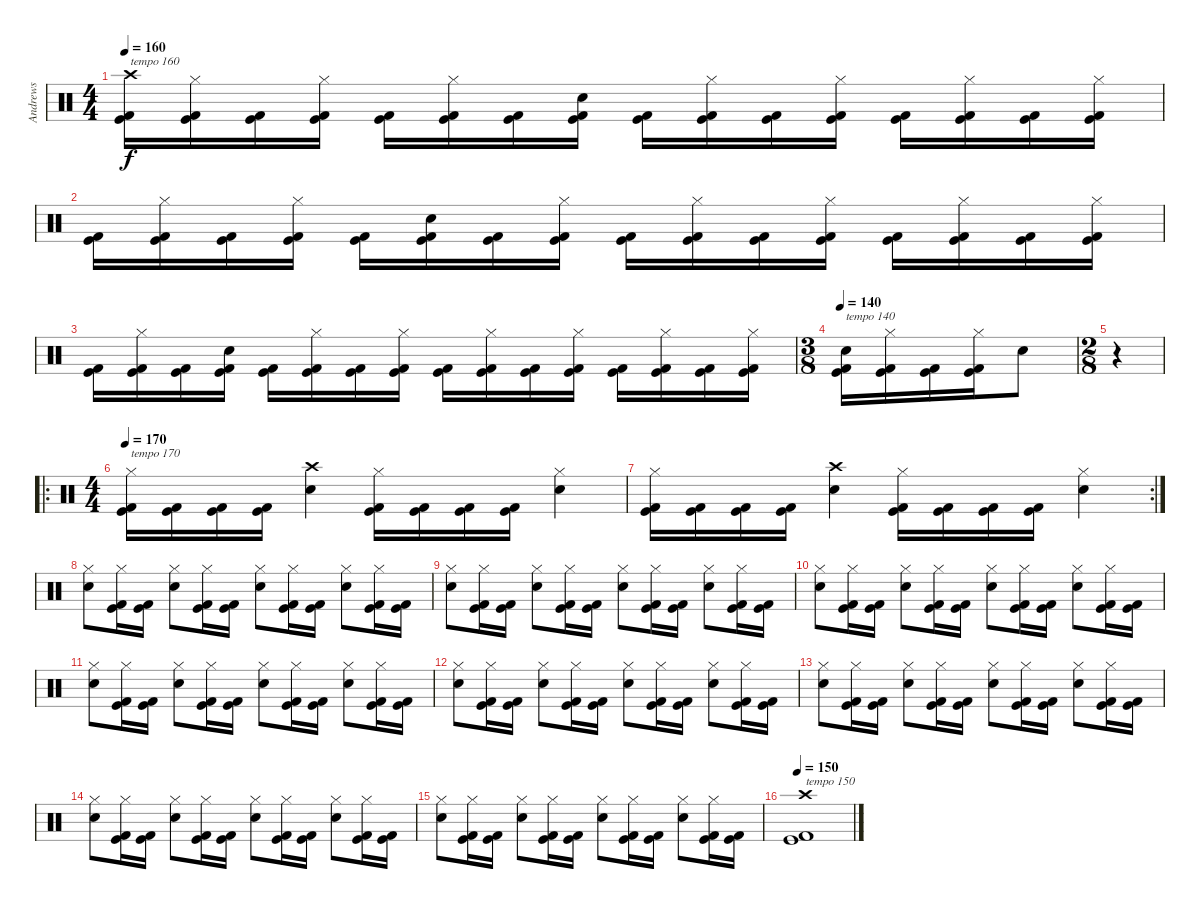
\track ("Andrews" "Andrews") {instrument percussion}
\staff {score}
\articulation defaults
\ts (4 4)
\tempo 160
\clef neutral
\ks c
("Crash high (hit)" "Kick (hit) 2" "Kick (hit)").16{txt "tempo 160" dy f} ("Hi-Hat (closed)" "Kick (hit) 2" "Kick (hit)").16 ("Kick (hit) 2" "Kick (hit)").16 ("Hi-Hat (closed)" "Kick (hit) 2" "Kick (hit)").16 ("Kick (hit) 2" "Kick (hit)").16 ("Hi-Hat (closed)" "Kick (hit) 2" "Kick (hit)").16 ("Kick (hit) 2" "Kick (hit)").16 ("Electric Snare (hit)" "Kick (hit) 2" "Kick (hit)").16 ("Kick (hit) 2" "Kick (hit)").16 ("Hi-Hat (closed)" "Kick (hit) 2" "Kick (hit)").16 ("Kick (hit) 2" "Kick (hit)").16 ("Hi-Hat (closed)" "Kick (hit) 2" "Kick (hit)").16 ("Kick (hit) 2" "Kick (hit)").16 ("Hi-Hat (closed)" "Kick (hit) 2" "Kick (hit)").16 ("Kick (hit) 2" "Kick (hit)").16 ("Hi-Hat (closed)" "Kick (hit) 2" "Kick (hit)").16 |
("Kick (hit) 2" "Kick (hit)").16 ("Hi-Hat (closed)" "Kick (hit) 2" "Kick (hit)").16 ("Kick (hit) 2" "Kick (hit)").16 ("Hi-Hat (closed)" "Kick (hit) 2" "Kick (hit)").16 ("Kick (hit) 2" "Kick (hit)").16 ("Electric Snare (hit)" "Kick (hit) 2" "Kick (hit)").16 ("Kick (hit) 2" "Kick (hit)").16 ("Hi-Hat (closed)" "Kick (hit) 2" "Kick (hit)").16 ("Kick (hit) 2" "Kick (hit)").16 ("Hi-Hat (closed)" "Kick (hit) 2" "Kick (hit)").16 ("Kick (hit) 2" "Kick (hit)").16 ("Hi-Hat (closed)" "Kick (hit) 2" "Kick (hit)").16 ("Kick (hit) 2" "Kick (hit)").16 ("Hi-Hat (closed)" "Kick (hit) 2" "Kick (hit)").16 ("Kick (hit) 2" "Kick (hit)").16 ("Hi-Hat (closed)" "Kick (hit) 2" "Kick (hit)").16 |
("Kick (hit) 2" "Kick (hit)").16 ("Hi-Hat (closed)" "Kick (hit) 2" "Kick (hit)").16 ("Kick (hit) 2" "Kick (hit)").16 ("Electric Snare (hit)" "Kick (hit) 2" "Kick (hit)").16 ("Kick (hit) 2" "Kick (hit)").16 ("Hi-Hat (closed)" "Kick (hit) 2" "Kick (hit)").16 ("Kick (hit) 2" "Kick (hit)").16 ("Hi-Hat (closed)" "Kick (hit) 2" "Kick (hit)").16 ("Kick (hit) 2" "Kick (hit)").16 ("Hi-Hat (closed)" "Kick (hit) 2" "Kick (hit)").16 ("Kick (hit) 2" "Kick (hit)").16 ("Hi-Hat (closed)" "Kick (hit) 2" "Kick (hit)").16 ("Kick (hit) 2" "Kick (hit)").16 ("Hi-Hat (closed)" "Kick (hit) 2" "Kick (hit)").16 ("Kick (hit) 2" "Kick (hit)").16 ("Hi-Hat (closed)" "Kick (hit) 2" "Kick (hit)").16 |
\ts (3 8)
\tempo 140
("Electric Snare (hit)" "Kick (hit) 2" "Kick (hit)").16{txt "tempo 140"} ("Hi-Hat (closed)" "Kick (hit) 2" "Kick (hit)").16 ("Kick (hit) 2" "Kick (hit)").16 ("Hi-Hat (closed)" "Kick (hit) 2" "Kick (hit)").16 "Electric Snare (hit)".8 |
\ts (2 8)
r.4 |
\ro
\ts (4 4)
\tempo 170
("Hi-Hat (closed)" "Kick (hit) 2" "Kick (hit)").16{txt "tempo 170"} ("Kick (hit) 2" "Kick (hit)").16 ("Kick (hit) 2" "Kick (hit)").16 ("Kick (hit) 2" "Kick (hit)").16 ("Electric Snare (hit)" "Crash high (hit)").4 ("Hi-Hat (closed)" "Kick (hit) 2" "Kick (hit)").16 ("Kick (hit) 2" "Kick (hit)").16 ("Kick (hit) 2" "Kick (hit)").16 ("Kick (hit) 2" "Kick (hit)").16 ("Electric Snare (hit)" "Hi-Hat (closed)").4 |
\rc 2
("Hi-Hat (closed)" "Kick (hit) 2" "Kick (hit)").16 ("Kick (hit) 2" "Kick (hit)").16 ("Kick (hit) 2" "Kick (hit)").16 ("Kick (hit) 2" "Kick (hit)").16 ("Electric Snare (hit)" "Crash high (hit)").4 ("Hi-Hat (closed)" "Kick (hit) 2" "Kick (hit)").16 ("Kick (hit) 2" "Kick (hit)").16 ("Kick (hit) 2" "Kick (hit)").16 ("Kick (hit) 2" "Kick (hit)").16 ("Electric Snare (hit)" "Hi-Hat (closed)").4 |
("Hi-Hat (closed)" "Electric Snare (hit)").8 ("Hi-Hat (closed)" "Kick (hit) 2" "Kick (hit)").16 ("Kick (hit) 2" "Kick (hit)").16 ("Hi-Hat (closed)" "Electric Snare (hit)").8 ("Hi-Hat (closed)" "Kick (hit) 2" "Kick (hit)").16 ("Kick (hit) 2" "Kick (hit)").16 ("Hi-Hat (closed)" "Electric Snare (hit)").8 ("Hi-Hat (closed)" "Kick (hit) 2" "Kick (hit)").16 ("Kick (hit) 2" "Kick (hit)").16 ("Hi-Hat (closed)" "Electric Snare (hit)").8 ("Hi-Hat (closed)" "Kick (hit) 2" "Kick (hit)").16 ("Kick (hit) 2" "Kick (hit)").16 |
("Hi-Hat (closed)" "Electric Snare (hit)").8 ("Hi-Hat (closed)" "Kick (hit) 2" "Kick (hit)").16 ("Kick (hit) 2" "Kick (hit)").16 ("Hi-Hat (closed)" "Electric Snare (hit)").8 ("Hi-Hat (closed)" "Kick (hit) 2" "Kick (hit)").16 ("Kick (hit) 2" "Kick (hit)").16 ("Hi-Hat (closed)" "Electric Snare (hit)").8 ("Hi-Hat (closed)" "Kick (hit) 2" "Kick (hit)").16 ("Kick (hit) 2" "Kick (hit)").16 ("Hi-Hat (closed)" "Electric Snare (hit)").8 ("Hi-Hat (closed)" "Kick (hit) 2" "Kick (hit)").16 ("Kick (hit) 2" "Kick (hit)").16 |
("Hi-Hat (closed)" "Electric Snare (hit)").8 ("Hi-Hat (closed)" "Kick (hit) 2" "Kick (hit)").16 ("Kick (hit) 2" "Kick (hit)").16 ("Hi-Hat (closed)" "Electric Snare (hit)").8 ("Hi-Hat (closed)" "Kick (hit) 2" "Kick (hit)").16 ("Kick (hit) 2" "Kick (hit)").16 ("Hi-Hat (closed)" "Electric Snare (hit)").8 ("Hi-Hat (closed)" "Kick (hit) 2" "Kick (hit)").16 ("Kick (hit) 2" "Kick (hit)").16 ("Hi-Hat (closed)" "Electric Snare (hit)").8 ("Hi-Hat (closed)" "Kick (hit) 2" "Kick (hit)").16 ("Kick (hit) 2" "Kick (hit)").16 |
("Hi-Hat (closed)" "Electric Snare (hit)").8 ("Hi-Hat (closed)" "Kick (hit) 2" "Kick (hit)").16 ("Kick (hit) 2" "Kick (hit)").16 ("Hi-Hat (closed)" "Electric Snare (hit)").8 ("Hi-Hat (closed)" "Kick (hit) 2" "Kick (hit)").16 ("Kick (hit) 2" "Kick (hit)").16 ("Hi-Hat (closed)" "Electric Snare (hit)").8 ("Hi-Hat (closed)" "Kick (hit) 2" "Kick (hit)").16 ("Kick (hit) 2" "Kick (hit)").16 ("Hi-Hat (closed)" "Electric Snare (hit)").8 ("Hi-Hat (closed)" "Kick (hit) 2" "Kick (hit)").16 ("Kick (hit) 2" "Kick (hit)").16 |
("Hi-Hat (closed)" "Electric Snare (hit)").8 ("Hi-Hat (closed)" "Kick (hit) 2" "Kick (hit)").16 ("Kick (hit) 2" "Kick (hit)").16 ("Hi-Hat (closed)" "Electric Snare (hit)").8 ("Hi-Hat (closed)" "Kick (hit) 2" "Kick (hit)").16 ("Kick (hit) 2" "Kick (hit)").16 ("Hi-Hat (closed)" "Electric Snare (hit)").8 ("Hi-Hat (closed)" "Kick (hit) 2" "Kick (hit)").16 ("Kick (hit) 2" "Kick (hit)").16 ("Hi-Hat (closed)" "Electric Snare (hit)").8 ("Hi-Hat (closed)" "Kick (hit) 2" "Kick (hit)").16 ("Kick (hit) 2" "Kick (hit)").16 |
("Hi-Hat (closed)" "Electric Snare (hit)").8 ("Hi-Hat (closed)" "Kick (hit) 2" "Kick (hit)").16 ("Kick (hit) 2" "Kick (hit)").16 ("Hi-Hat (closed)" "Electric Snare (hit)").8 ("Hi-Hat (closed)" "Kick (hit) 2" "Kick (hit)").16 ("Kick (hit) 2" "Kick (hit)").16 ("Hi-Hat (closed)" "Electric Snare (hit)").8 ("Hi-Hat (closed)" "Kick (hit) 2" "Kick (hit)").16 ("Kick (hit) 2" "Kick (hit)").16 ("Hi-Hat (closed)" "Electric Snare (hit)").8 ("Hi-Hat (closed)" "Kick (hit) 2" "Kick (hit)").16 ("Kick (hit) 2" "Kick (hit)").16 |
("Hi-Hat (closed)" "Electric Snare (hit)").8 ("Hi-Hat (closed)" "Kick (hit) 2" "Kick (hit)").16 ("Kick (hit) 2" "Kick (hit)").16 ("Hi-Hat (closed)" "Electric Snare (hit)").8 ("Hi-Hat (closed)" "Kick (hit) 2" "Kick (hit)").16 ("Kick (hit) 2" "Kick (hit)").16 ("Hi-Hat (closed)" "Electric Snare (hit)").8 ("Hi-Hat (closed)" "Kick (hit) 2" "Kick (hit)").16 ("Kick (hit) 2" "Kick (hit)").16 ("Hi-Hat (closed)" "Electric Snare (hit)").8 ("Hi-Hat (closed)" "Kick (hit) 2" "Kick (hit)").16 ("Kick (hit) 2" "Kick (hit)").16 |
("Hi-Hat (closed)" "Electric Snare (hit)").8 ("Hi-Hat (closed)" "Kick (hit) 2" "Kick (hit)").16 ("Kick (hit) 2" "Kick (hit)").16 ("Hi-Hat (closed)" "Electric Snare (hit)").8 ("Hi-Hat (closed)" "Kick (hit) 2" "Kick (hit)").16 ("Kick (hit) 2" "Kick (hit)").16 ("Hi-Hat (closed)" "Electric Snare (hit)").8 ("Hi-Hat (closed)" "Kick (hit) 2" "Kick (hit)").16 ("Kick (hit) 2" "Kick (hit)").16 ("Hi-Hat (closed)" "Electric Snare (hit)").8 ("Hi-Hat (closed)" "Kick (hit) 2" "Kick (hit)").16 ("Kick (hit) 2" "Kick (hit)").16 |
\tempo 150
("Crash high (hit)" "Kick (hit) 2" "Kick (hit)").1{txt "tempo 150"}
